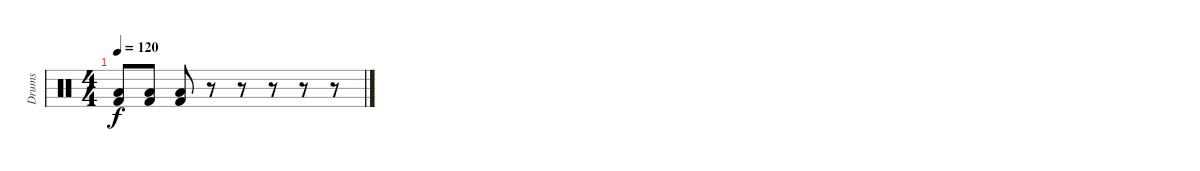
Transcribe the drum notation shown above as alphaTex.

\track ("Drums" "Drums") {instrument percussion}
\staff {score}
\articulation defaults
\ts (4 4)
\tempo 120
\clef neutral
\ks c
("Low Floor Tom (hit)" "Kick (hit) 2").8{dy f} ("Low Floor Tom (hit)" "Kick (hit) 2").8 ("Low Floor Tom (hit)" "Kick (hit) 2").8 r.8 r.8 r.8 r.8 r.8
